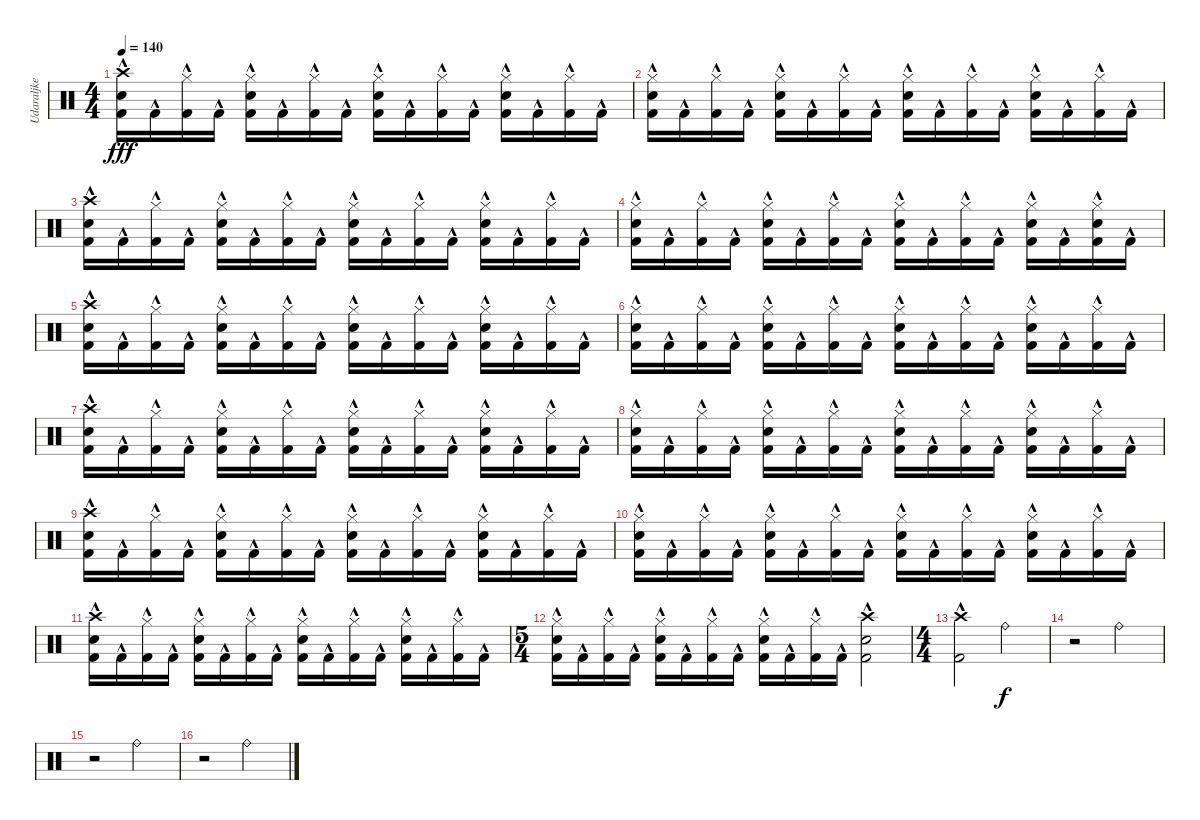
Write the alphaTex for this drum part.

\track ("Udaraljke" "Udaraljke") {instrument percussion}
\staff {score}
\articulation defaults
\ts (4 4)
\tempo 140
\clef neutral
\ks c
("Crash high (hit)" "Snare (hit) 2"{hac} "Kick (hit) 2"{hac}).16{dy fff} "Kick (hit) 2"{hac}.16 ("Hi-Hat (closed)" "Kick (hit) 2"{hac}).16 "Kick (hit) 2"{hac}.16 ("Hi-Hat (closed)" "Snare (hit) 2"{hac} "Kick (hit) 2"{hac}).16 "Kick (hit) 2"{hac}.16 ("Hi-Hat (closed)" "Kick (hit) 2"{hac}).16 "Kick (hit) 2"{hac}.16 ("Hi-Hat (closed)" "Snare (hit) 2"{hac} "Kick (hit) 2"{hac}).16 "Kick (hit) 2"{hac}.16 ("Hi-Hat (closed)" "Kick (hit) 2"{hac}).16 "Kick (hit) 2"{hac}.16 ("Hi-Hat (closed)" "Snare (hit) 2"{hac} "Kick (hit) 2"{hac}).16 "Kick (hit) 2"{hac}.16 ("Hi-Hat (closed)" "Kick (hit) 2"{hac}).16 "Kick (hit) 2"{hac}.16 |
("Hi-Hat (closed)" "Snare (hit) 2"{hac} "Kick (hit) 2"{hac}).16 "Kick (hit) 2"{hac}.16 ("Hi-Hat (closed)" "Kick (hit) 2"{hac}).16 "Kick (hit) 2"{hac}.16 ("Hi-Hat (closed)" "Snare (hit) 2"{hac} "Kick (hit) 2"{hac}).16 "Kick (hit) 2"{hac}.16 ("Hi-Hat (closed)" "Kick (hit) 2"{hac}).16 "Kick (hit) 2"{hac}.16 ("Hi-Hat (closed)" "Snare (hit) 2"{hac} "Kick (hit) 2"{hac}).16 "Kick (hit) 2"{hac}.16 ("Hi-Hat (closed)" "Kick (hit) 2"{hac}).16 "Kick (hit) 2"{hac}.16 ("Hi-Hat (closed)" "Snare (hit) 2"{hac} "Kick (hit) 2"{hac}).16 "Kick (hit) 2"{hac}.16 ("Hi-Hat (closed)" "Kick (hit) 2"{hac}).16 "Kick (hit) 2"{hac}.16 |
("Crash high (hit)" "Snare (hit) 2"{hac} "Kick (hit) 2"{hac}).16 "Kick (hit) 2"{hac}.16 ("Hi-Hat (closed)" "Kick (hit) 2"{hac}).16 "Kick (hit) 2"{hac}.16 ("Hi-Hat (closed)" "Snare (hit) 2"{hac} "Kick (hit) 2"{hac}).16 "Kick (hit) 2"{hac}.16 ("Hi-Hat (closed)" "Kick (hit) 2"{hac}).16 "Kick (hit) 2"{hac}.16 ("Hi-Hat (closed)" "Snare (hit) 2"{hac} "Kick (hit) 2"{hac}).16 "Kick (hit) 2"{hac}.16 ("Hi-Hat (closed)" "Kick (hit) 2"{hac}).16 "Kick (hit) 2"{hac}.16 ("Hi-Hat (closed)" "Snare (hit) 2"{hac} "Kick (hit) 2"{hac}).16 "Kick (hit) 2"{hac}.16 ("Hi-Hat (closed)" "Kick (hit) 2"{hac}).16 "Kick (hit) 2"{hac}.16 |
("Hi-Hat (closed)" "Snare (hit) 2"{hac} "Kick (hit) 2"{hac}).16 "Kick (hit) 2"{hac}.16 ("Hi-Hat (closed)" "Kick (hit) 2"{hac}).16 "Kick (hit) 2"{hac}.16 ("Hi-Hat (closed)" "Snare (hit) 2"{hac} "Kick (hit) 2"{hac}).16 "Kick (hit) 2"{hac}.16 ("Hi-Hat (closed)" "Kick (hit) 2"{hac}).16 "Kick (hit) 2"{hac}.16 ("Hi-Hat (closed)" "Snare (hit) 2"{hac} "Kick (hit) 2"{hac}).16 "Kick (hit) 2"{hac}.16 ("Hi-Hat (closed)" "Kick (hit) 2"{hac}).16 "Kick (hit) 2"{hac}.16 ("Hi-Hat (closed)" "Snare (hit) 2"{hac} "Kick (hit) 2"{hac}).16 "Kick (hit) 2"{hac}.16 ("Hi-Hat (closed)" "Snare (hit) 2"{hac} "Kick (hit) 2"{hac}).16 "Kick (hit) 2"{hac}.16 |
("Crash high (hit)" "Snare (hit) 2"{hac} "Kick (hit) 2"{hac}).16 "Kick (hit) 2"{hac}.16 ("Hi-Hat (closed)" "Kick (hit) 2"{hac}).16 "Kick (hit) 2"{hac}.16 ("Hi-Hat (closed)" "Snare (hit) 2"{hac} "Kick (hit) 2"{hac}).16 "Kick (hit) 2"{hac}.16 ("Hi-Hat (closed)" "Kick (hit) 2"{hac}).16 "Kick (hit) 2"{hac}.16 ("Hi-Hat (closed)" "Snare (hit) 2"{hac} "Kick (hit) 2"{hac}).16 "Kick (hit) 2"{hac}.16 ("Hi-Hat (closed)" "Kick (hit) 2"{hac}).16 "Kick (hit) 2"{hac}.16 ("Hi-Hat (closed)" "Snare (hit) 2"{hac} "Kick (hit) 2"{hac}).16 "Kick (hit) 2"{hac}.16 ("Hi-Hat (closed)" "Kick (hit) 2"{hac}).16 "Kick (hit) 2"{hac}.16 |
("Hi-Hat (closed)" "Snare (hit) 2"{hac} "Kick (hit) 2"{hac}).16 "Kick (hit) 2"{hac}.16 ("Hi-Hat (closed)" "Kick (hit) 2"{hac}).16 "Kick (hit) 2"{hac}.16 ("Hi-Hat (closed)" "Snare (hit) 2"{hac} "Kick (hit) 2"{hac}).16 "Kick (hit) 2"{hac}.16 ("Hi-Hat (closed)" "Kick (hit) 2"{hac}).16 "Kick (hit) 2"{hac}.16 ("Hi-Hat (closed)" "Snare (hit) 2"{hac} "Kick (hit) 2"{hac}).16 "Kick (hit) 2"{hac}.16 ("Hi-Hat (closed)" "Kick (hit) 2"{hac}).16 "Kick (hit) 2"{hac}.16 ("Hi-Hat (closed)" "Snare (hit) 2"{hac} "Kick (hit) 2"{hac}).16 "Kick (hit) 2"{hac}.16 ("Hi-Hat (closed)" "Kick (hit) 2"{hac}).16 "Kick (hit) 2"{hac}.16 |
("Crash high (hit)" "Snare (hit) 2"{hac} "Kick (hit) 2"{hac}).16 "Kick (hit) 2"{hac}.16 ("Hi-Hat (closed)" "Kick (hit) 2"{hac}).16 "Kick (hit) 2"{hac}.16 ("Hi-Hat (closed)" "Snare (hit) 2"{hac} "Kick (hit) 2"{hac}).16 "Kick (hit) 2"{hac}.16 ("Hi-Hat (closed)" "Kick (hit) 2"{hac}).16 "Kick (hit) 2"{hac}.16 ("Hi-Hat (closed)" "Snare (hit) 2"{hac} "Kick (hit) 2"{hac}).16 "Kick (hit) 2"{hac}.16 ("Hi-Hat (closed)" "Kick (hit) 2"{hac}).16 "Kick (hit) 2"{hac}.16 ("Hi-Hat (closed)" "Snare (hit) 2"{hac} "Kick (hit) 2"{hac}).16 "Kick (hit) 2"{hac}.16 ("Hi-Hat (closed)" "Kick (hit) 2"{hac}).16 "Kick (hit) 2"{hac}.16 |
("Hi-Hat (closed)" "Snare (hit) 2"{hac} "Kick (hit) 2"{hac}).16 "Kick (hit) 2"{hac}.16 ("Hi-Hat (closed)" "Kick (hit) 2"{hac}).16 "Kick (hit) 2"{hac}.16 ("Hi-Hat (closed)" "Snare (hit) 2"{hac} "Kick (hit) 2"{hac}).16 "Kick (hit) 2"{hac}.16 ("Hi-Hat (closed)" "Kick (hit) 2"{hac}).16 "Kick (hit) 2"{hac}.16 ("Hi-Hat (closed)" "Snare (hit) 2"{hac} "Kick (hit) 2"{hac}).16 "Kick (hit) 2"{hac}.16 ("Hi-Hat (closed)" "Kick (hit) 2"{hac}).16 "Kick (hit) 2"{hac}.16 ("Hi-Hat (closed)" "Snare (hit) 2"{hac} "Kick (hit) 2"{hac}).16 "Kick (hit) 2"{hac}.16 ("Hi-Hat (closed)" "Kick (hit) 2"{hac}).16 "Kick (hit) 2"{hac}.16 |
("Crash high (hit)" "Snare (hit) 2"{hac} "Kick (hit) 2"{hac}).16 "Kick (hit) 2"{hac}.16 ("Hi-Hat (closed)" "Kick (hit) 2"{hac}).16 "Kick (hit) 2"{hac}.16 ("Hi-Hat (closed)" "Snare (hit) 2"{hac} "Kick (hit) 2"{hac}).16 "Kick (hit) 2"{hac}.16 ("Hi-Hat (closed)" "Kick (hit) 2"{hac}).16 "Kick (hit) 2"{hac}.16 ("Hi-Hat (closed)" "Snare (hit) 2"{hac} "Kick (hit) 2"{hac}).16 "Kick (hit) 2"{hac}.16 ("Hi-Hat (closed)" "Kick (hit) 2"{hac}).16 "Kick (hit) 2"{hac}.16 ("Hi-Hat (closed)" "Snare (hit) 2"{hac} "Kick (hit) 2"{hac}).16 "Kick (hit) 2"{hac}.16 ("Hi-Hat (closed)" "Kick (hit) 2"{hac}).16 "Kick (hit) 2"{hac}.16 |
("Hi-Hat (closed)" "Snare (hit) 2"{hac} "Kick (hit) 2"{hac}).16 "Kick (hit) 2"{hac}.16 ("Hi-Hat (closed)" "Kick (hit) 2"{hac}).16 "Kick (hit) 2"{hac}.16 ("Hi-Hat (closed)" "Snare (hit) 2"{hac} "Kick (hit) 2"{hac}).16 "Kick (hit) 2"{hac}.16 ("Hi-Hat (closed)" "Kick (hit) 2"{hac}).16 "Kick (hit) 2"{hac}.16 ("Hi-Hat (closed)" "Snare (hit) 2"{hac} "Kick (hit) 2"{hac}).16 "Kick (hit) 2"{hac}.16 ("Hi-Hat (closed)" "Kick (hit) 2"{hac}).16 "Kick (hit) 2"{hac}.16 ("Hi-Hat (closed)" "Snare (hit) 2"{hac} "Kick (hit) 2"{hac}).16 "Kick (hit) 2"{hac}.16 ("Hi-Hat (closed)" "Kick (hit) 2"{hac}).16 "Kick (hit) 2"{hac}.16 |
("Crash high (hit)" "Snare (hit) 2"{hac} "Kick (hit) 2"{hac}).16 "Kick (hit) 2"{hac}.16 ("Hi-Hat (closed)" "Kick (hit) 2"{hac}).16 "Kick (hit) 2"{hac}.16 ("Hi-Hat (closed)" "Snare (hit) 2"{hac} "Kick (hit) 2"{hac}).16 "Kick (hit) 2"{hac}.16 ("Hi-Hat (closed)" "Kick (hit) 2"{hac}).16 "Kick (hit) 2"{hac}.16 ("Hi-Hat (closed)" "Snare (hit) 2"{hac} "Kick (hit) 2"{hac}).16 "Kick (hit) 2"{hac}.16 ("Hi-Hat (closed)" "Kick (hit) 2"{hac}).16 "Kick (hit) 2"{hac}.16 ("Hi-Hat (closed)" "Snare (hit) 2"{hac} "Kick (hit) 2"{hac}).16 "Kick (hit) 2"{hac}.16 ("Hi-Hat (closed)" "Kick (hit) 2"{hac}).16 "Kick (hit) 2"{hac}.16 |
\ts (5 4)
("Hi-Hat (closed)" "Snare (hit) 2"{hac} "Kick (hit) 2"{hac}).16 "Kick (hit) 2"{hac}.16 ("Hi-Hat (closed)" "Kick (hit) 2"{hac}).16 "Kick (hit) 2"{hac}.16 ("Hi-Hat (closed)" "Snare (hit) 2"{hac} "Kick (hit) 2"{hac}).16 "Kick (hit) 2"{hac}.16 ("Hi-Hat (closed)" "Kick (hit) 2"{hac}).16 "Kick (hit) 2"{hac}.16 ("Hi-Hat (closed)" "Snare (hit) 2"{hac} "Kick (hit) 2"{hac}).16 "Kick (hit) 2"{hac}.16 ("Hi-Hat (closed)" "Kick (hit) 2"{hac}).16 "Kick (hit) 2"{hac}.16 ("Crash high (hit)" "Snare (hit) 2"{hac} "Kick (hit) 2"{hac}).2 |
\ts (4 4)
("Crash high (hit)" "Kick (hit) 2"{hac}).2 "Ride (bell)".2{dy f} |
r.2 "Ride (bell)".2 |
r.2 "Ride (bell)".2 |
r.2 "Ride (bell)".2
